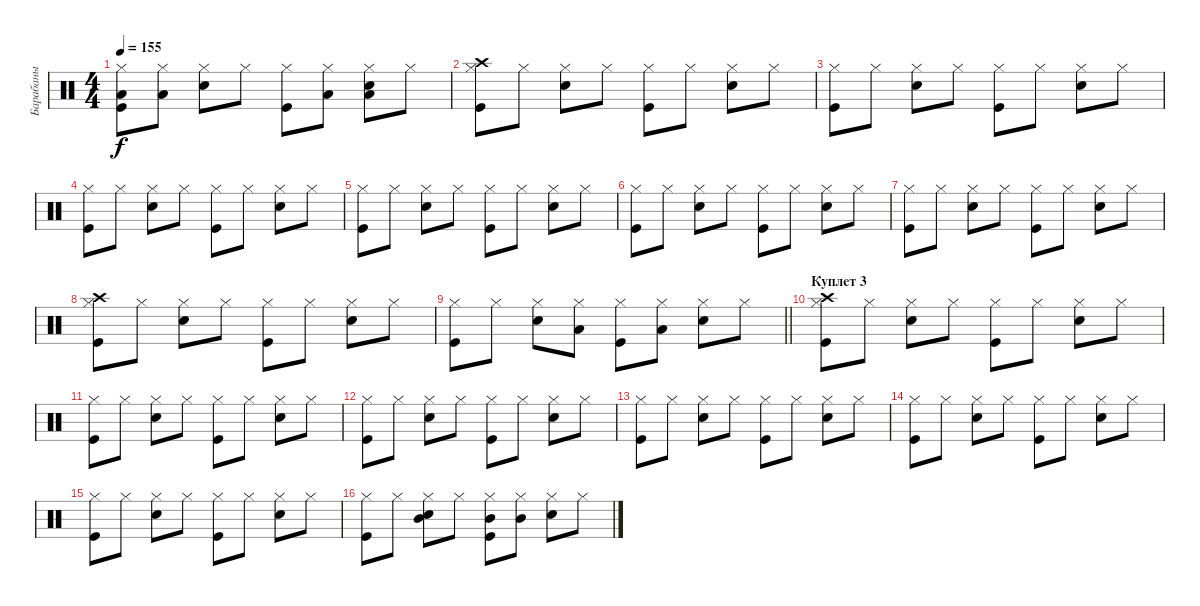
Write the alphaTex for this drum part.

\track ("Барабаны" "Барабаны") {instrument percussion}
\staff {score}
\articulation defaults
\ts (4 4)
\tempo 155
\clef neutral
\ks c
("Kick (hit)" "Hi-Hat (closed)" "Low Tom (hit)").8{dy f} ("Hi-Hat (closed)" "Low Tom (hit)").8 ("Snare (hit) 2" "Hi-Hat (closed)").8 "Hi-Hat (closed)".8 ("Kick (hit)" "Hi-Hat (closed)").8 ("Hi-Hat (closed)" "Low Tom (hit)").8 ("Snare (hit) 2" "Hi-Hat (closed)" "Low Tom (hit)").8 "Hi-Hat (closed)".8 |
("Kick (hit)" "Hi-Hat (closed)" "Crash high (hit)").8 "Hi-Hat (closed)".8 ("Snare (hit) 2" "Hi-Hat (closed)").8 "Hi-Hat (closed)".8 ("Kick (hit)" "Hi-Hat (closed)").8 "Hi-Hat (closed)".8 ("Snare (hit) 2" "Hi-Hat (closed)").8 "Hi-Hat (closed)".8 |
("Kick (hit)" "Hi-Hat (closed)").8 "Hi-Hat (closed)".8 ("Snare (hit) 2" "Hi-Hat (closed)").8 "Hi-Hat (closed)".8 ("Kick (hit)" "Hi-Hat (closed)").8 "Hi-Hat (closed)".8 ("Snare (hit) 2" "Hi-Hat (closed)").8 "Hi-Hat (closed)".8 |
("Kick (hit)" "Hi-Hat (closed)").8 "Hi-Hat (closed)".8 ("Snare (hit) 2" "Hi-Hat (closed)").8 "Hi-Hat (closed)".8 ("Kick (hit)" "Hi-Hat (closed)").8 "Hi-Hat (closed)".8 ("Snare (hit) 2" "Hi-Hat (closed)").8 "Hi-Hat (closed)".8 |
("Kick (hit)" "Hi-Hat (closed)").8 "Hi-Hat (closed)".8 ("Snare (hit) 2" "Hi-Hat (closed)").8 "Hi-Hat (closed)".8 ("Kick (hit)" "Hi-Hat (closed)").8 "Hi-Hat (closed)".8 ("Snare (hit) 2" "Hi-Hat (closed)").8 "Hi-Hat (closed)".8 |
("Kick (hit)" "Hi-Hat (closed)").8 "Hi-Hat (closed)".8 ("Snare (hit) 2" "Hi-Hat (closed)").8 "Hi-Hat (closed)".8 ("Kick (hit)" "Hi-Hat (closed)").8 "Hi-Hat (closed)".8 ("Snare (hit) 2" "Hi-Hat (closed)").8 "Hi-Hat (closed)".8 |
("Kick (hit)" "Hi-Hat (closed)").8 "Hi-Hat (closed)".8 ("Snare (hit) 2" "Hi-Hat (closed)").8 "Hi-Hat (closed)".8 ("Kick (hit)" "Hi-Hat (closed)").8 "Hi-Hat (closed)".8 ("Snare (hit) 2" "Hi-Hat (closed)").8 "Hi-Hat (closed)".8 |
("Kick (hit)" "Hi-Hat (closed)" "Crash high (hit)").8 "Hi-Hat (closed)".8 ("Snare (hit) 2" "Hi-Hat (closed)").8 "Hi-Hat (closed)".8 ("Kick (hit)" "Hi-Hat (closed)").8 "Hi-Hat (closed)".8 ("Snare (hit) 2" "Hi-Hat (closed)").8 "Hi-Hat (closed)".8 |
\barLineRight lightlight
("Kick (hit)" "Hi-Hat (closed)").8 "Hi-Hat (closed)".8 ("Snare (hit) 2" "Hi-Hat (closed)").8 ("Hi-Hat (closed)" "Low Tom (hit)").8 ("Kick (hit)" "Hi-Hat (closed)").8 ("Hi-Hat (closed)" "Low Tom (hit)").8 ("Snare (hit) 2" "Hi-Hat (closed)").8 "Hi-Hat (closed)".8 |
\section ("" "Куплет 3")
("Kick (hit)" "Hi-Hat (closed)" "Crash high (hit)").8 "Hi-Hat (closed)".8 ("Snare (hit) 2" "Hi-Hat (closed)").8 "Hi-Hat (closed)".8 ("Kick (hit)" "Hi-Hat (closed)").8 "Hi-Hat (closed)".8 ("Snare (hit) 2" "Hi-Hat (closed)").8 "Hi-Hat (closed)".8 |
("Kick (hit)" "Hi-Hat (closed)").8 "Hi-Hat (closed)".8 ("Snare (hit) 2" "Hi-Hat (closed)").8 "Hi-Hat (closed)".8 ("Kick (hit)" "Hi-Hat (closed)").8 "Hi-Hat (closed)".8 ("Snare (hit) 2" "Hi-Hat (closed)").8 "Hi-Hat (closed)".8 |
("Kick (hit)" "Hi-Hat (closed)").8 "Hi-Hat (closed)".8 ("Snare (hit) 2" "Hi-Hat (closed)").8 "Hi-Hat (closed)".8 ("Kick (hit)" "Hi-Hat (closed)").8 "Hi-Hat (closed)".8 ("Snare (hit) 2" "Hi-Hat (closed)").8 "Hi-Hat (closed)".8 |
("Kick (hit)" "Hi-Hat (closed)").8 "Hi-Hat (closed)".8 ("Snare (hit) 2" "Hi-Hat (closed)").8 "Hi-Hat (closed)".8 ("Kick (hit)" "Hi-Hat (closed)").8 "Hi-Hat (closed)".8 ("Snare (hit) 2" "Hi-Hat (closed)").8 "Hi-Hat (closed)".8 |
("Kick (hit)" "Hi-Hat (closed)").8 "Hi-Hat (closed)".8 ("Snare (hit) 2" "Hi-Hat (closed)").8 "Hi-Hat (closed)".8 ("Kick (hit)" "Hi-Hat (closed)").8 "Hi-Hat (closed)".8 ("Snare (hit) 2" "Hi-Hat (closed)").8 "Hi-Hat (closed)".8 |
("Kick (hit)" "Hi-Hat (closed)").8 "Hi-Hat (closed)".8 ("Snare (hit) 2" "Hi-Hat (closed)").8 "Hi-Hat (closed)".8 ("Kick (hit)" "Hi-Hat (closed)").8 "Hi-Hat (closed)".8 ("Snare (hit) 2" "Hi-Hat (closed)").8 "Hi-Hat (closed)".8 |
("Kick (hit)" "Hi-Hat (closed)").8 "Hi-Hat (closed)".8 ("Snare (hit) 2" "Hi-Hat (closed)" "Mid Tom (hit)").8 "Hi-Hat (closed)".8 ("Kick (hit)" "Hi-Hat (closed)" "Mid Tom (hit)").8 ("Hi-Hat (closed)" "Mid Tom (hit)").8 ("Snare (hit) 2" "Hi-Hat (closed)").8 "Hi-Hat (closed)".8
